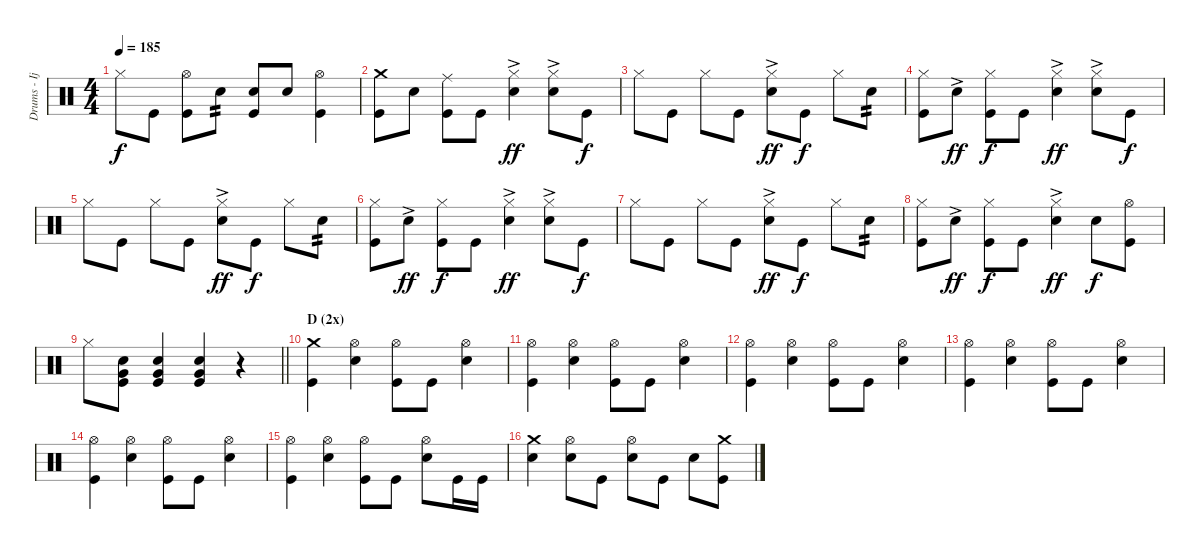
\track ("Drums - Ijichi" "Drums - Ij") {instrument percussion}
\staff {score}
\articulation defaults
\ts (4 4)
\tempo 185
\clef neutral
\ks c "Hi-Hat (closed)".8{dy f} "Kick (hit)".8
("Hi-Hat (open)" "Kick (hit)").8 "Electric Snare (hit)".8{tp 2} ("Electric Snare (hit)" "Kick (hit)").8 "Electric Snare (hit)".8 ("Hi-Hat (open)" "Kick (hit)").4 |
("Crash medium (hit)" "Kick (hit)").8 "Electric Snare (hit)".8 ("Ride (middle)" "Kick (hit)").8 "Kick (hit)".8 ("Hi-Hat (closed)"{ac} "Electric Snare (hit)"{ac}).4{dy ff} ("Hi-Hat (closed)"{ac} "Electric Snare (hit)"{ac}).8 "Kick (hit)".8{dy f} |
"Hi-Hat (closed)".8 "Kick (hit)".8 "Hi-Hat (closed)".8 "Kick (hit)".8 ("Hi-Hat (closed)"{ac} "Electric Snare (hit)"{ac}).8{dy ff} "Kick (hit)".8{dy f} "Hi-Hat (closed)".8 "Electric Snare (hit)".8{tp 2} |
("Hi-Hat (closed)" "Kick (hit)").8 "Electric Snare (hit)"{ac}.8{dy ff} ("Hi-Hat (closed)" "Kick (hit)").8{dy f} "Kick (hit)".8 ("Hi-Hat (closed)"{ac} "Electric Snare (hit)"{ac}).4{dy ff} ("Hi-Hat (closed)"{ac} "Electric Snare (hit)"{ac}).8 "Kick (hit)".8{dy f} |
"Hi-Hat (closed)".8 "Kick (hit)".8 "Hi-Hat (closed)".8 "Kick (hit)".8 ("Hi-Hat (closed)"{ac} "Electric Snare (hit)"{ac}).8{dy ff} "Kick (hit)".8{dy f} "Hi-Hat (closed)".8 "Electric Snare (hit)".8{tp 2} |
("Hi-Hat (closed)" "Kick (hit)").8 "Electric Snare (hit)"{ac}.8{dy ff} ("Hi-Hat (closed)" "Kick (hit)").8{dy f} "Kick (hit)".8 ("Hi-Hat (closed)"{ac} "Electric Snare (hit)"{ac}).4{dy ff} ("Hi-Hat (closed)"{ac} "Electric Snare (hit)"{ac}).8 "Kick (hit)".8{dy f} |
"Hi-Hat (closed)".8 "Kick (hit)".8 "Hi-Hat (closed)".8 "Kick (hit)".8 ("Hi-Hat (closed)"{ac} "Electric Snare (hit)"{ac}).8{dy ff} "Kick (hit)".8{dy f} "Hi-Hat (closed)".8 "Electric Snare (hit)".8{tp 2} |
("Hi-Hat (closed)" "Kick (hit)").8 "Electric Snare (hit)"{ac}.8{dy ff} ("Hi-Hat (closed)" "Kick (hit)").8{dy f} "Kick (hit)".8 ("Hi-Hat (closed)"{ac} "Electric Snare (hit)"{ac}).4{dy ff} "Electric Snare (hit)".8{dy f} ("Hi-Hat (open)" "Kick (hit)").8 |
\barLineRight lightlight "Hi-Hat (closed)".8
("Electric Snare (hit)" "Very Low Tom (hit)" "Kick (hit)").8 ("Electric Snare (hit)" "Very Low Tom (hit)" "Kick (hit)").4 ("Electric Snare (hit)" "Very Low Tom (hit)" "Kick (hit)").4 r.4 |
\section ("" "D (2x)")
("Crash medium (hit)" "Kick (hit)").4 ("Hi-Hat (open)" "Electric Snare (hit)").4 ("Hi-Hat (open)" "Kick (hit)").8 "Kick (hit)".8 ("Hi-Hat (open)" "Electric Snare (hit)").4 |
("Hi-Hat (open)" "Kick (hit)").4 ("Hi-Hat (open)" "Electric Snare (hit)").4 ("Hi-Hat (open)" "Kick (hit)").8 "Kick (hit)".8 ("Hi-Hat (open)" "Electric Snare (hit)").4 |
("Hi-Hat (open)" "Kick (hit)").4 ("Hi-Hat (open)" "Electric Snare (hit)").4 ("Hi-Hat (open)" "Kick (hit)").8 "Kick (hit)".8 ("Hi-Hat (open)" "Electric Snare (hit)").4 |
("Hi-Hat (open)" "Kick (hit)").4 ("Hi-Hat (open)" "Electric Snare (hit)").4 ("Hi-Hat (open)" "Kick (hit)").8 "Kick (hit)".8 ("Hi-Hat (open)" "Electric Snare (hit)").4 |
("Hi-Hat (open)" "Kick (hit)").4 ("Hi-Hat (open)" "Electric Snare (hit)").4 ("Hi-Hat (open)" "Kick (hit)").8 "Kick (hit)".8 ("Hi-Hat (open)" "Electric Snare (hit)").4 |
("Hi-Hat (open)" "Kick (hit)").4 ("Hi-Hat (open)" "Electric Snare (hit)").4 ("Hi-Hat (open)" "Kick (hit)").8 "Kick (hit)".8 ("Hi-Hat (open)" "Electric Snare (hit)").8 "Kick (hit)".16 "Kick (hit)".16 |
("Crash medium (hit)" "Electric Snare (hit)").4 ("Hi-Hat (open)" "Electric Snare (hit)").8 "Kick (hit)".8 ("Hi-Hat (open)" "Electric Snare (hit)").8 "Kick (hit)".8 "Electric Snare (hit)".8 ("Crash medium (hit)" "Kick (hit)").8
